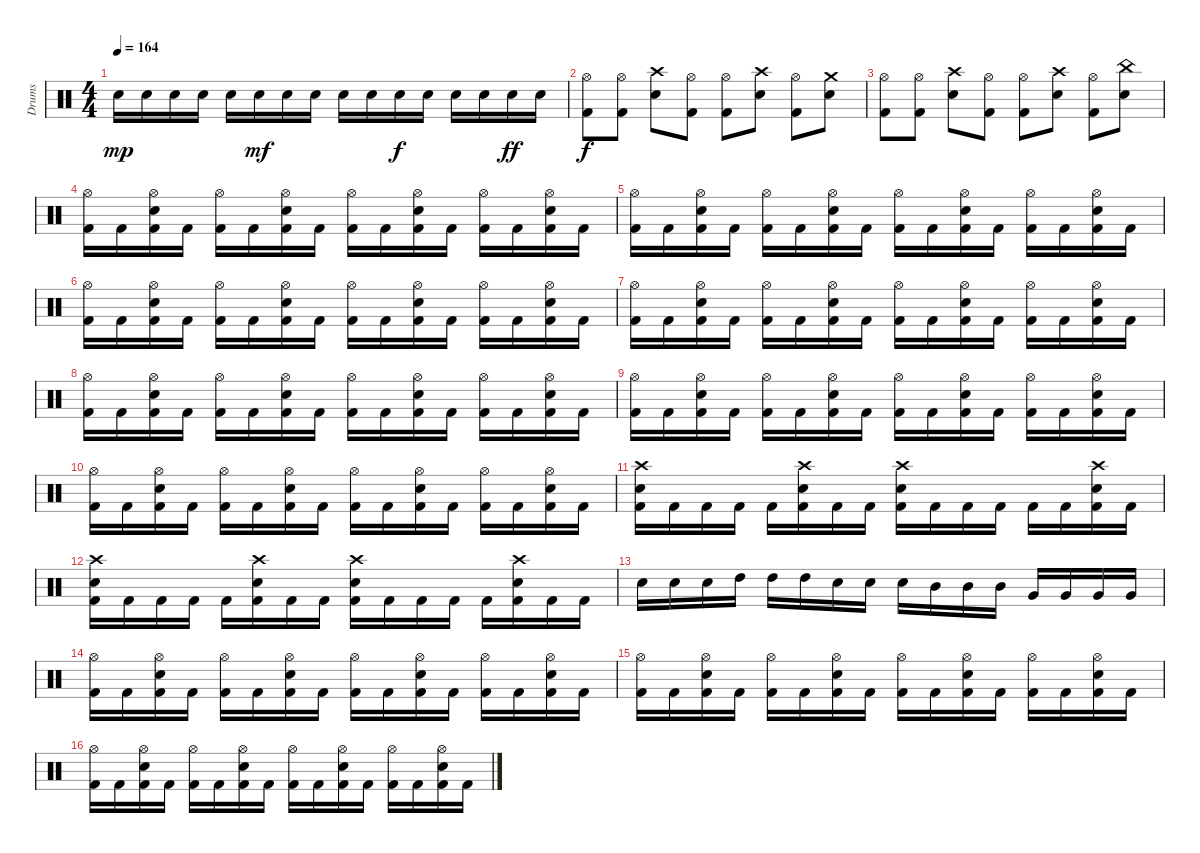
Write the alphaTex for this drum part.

\track ("Drums" "Drums") {instrument percussion}
\staff {score}
\articulation defaults
\ts (4 4)
\tempo 164
\clef neutral
\ks c "Snare (hit) 2".16{dy mp} "Snare (hit) 2".16 "Snare (hit) 2".16 "Snare (hit) 2".16 "Snare (hit) 2".16 "Snare (hit) 2".16{dy mf} "Snare (hit) 2".16 "Snare (hit) 2".16 "Snare (hit) 2".16 "Snare (hit) 2".16 "Snare (hit) 2".16{dy f} "Snare (hit) 2".16 "Snare (hit) 2".16 "Snare (hit) 2".16 "Snare (hit) 2".16{dy ff} "Snare (hit) 2".16
|
("Hi-Hat (open)" "Kick (hit) 2").8{dy f} ("Hi-Hat (open)" "Kick (hit) 2").8 ("Crash high (hit)" "Snare (hit) 2").8 ("Hi-Hat (open)" "Kick (hit) 2").8 ("Hi-Hat (open)" "Kick (hit) 2").8 ("Crash high (hit)" "Snare (hit) 2").8 ("Hi-Hat (open)" "Kick (hit) 2").8 ("Crash medium (hit)" "Snare (hit) 2").8 |
("Hi-Hat (open)" "Kick (hit) 2").8 ("Hi-Hat (open)" "Kick (hit) 2").8 ("Crash high (hit)" "Snare (hit) 2").8 ("Hi-Hat (open)" "Kick (hit) 2").8 ("Hi-Hat (open)" "Kick (hit) 2").8 ("Crash high (hit)" "Snare (hit) 2").8 ("Hi-Hat (open)" "Kick (hit) 2").8 ("China (hit)" "Snare (hit) 2").8 |
("Hi-Hat (open)" "Kick (hit) 2").16 "Kick (hit) 2".16 ("Hi-Hat (open)" "Kick (hit) 2" "Snare (hit) 2").16 "Kick (hit) 2".16 ("Hi-Hat (open)" "Kick (hit) 2").16 "Kick (hit) 2".16 ("Hi-Hat (open)" "Kick (hit) 2" "Snare (hit) 2").16 "Kick (hit) 2".16 ("Hi-Hat (open)" "Kick (hit) 2").16 "Kick (hit) 2".16 ("Hi-Hat (open)" "Kick (hit) 2" "Snare (hit) 2").16 "Kick (hit) 2".16 ("Hi-Hat (open)" "Kick (hit) 2").16 "Kick (hit) 2".16 ("Hi-Hat (open)" "Kick (hit) 2" "Snare (hit) 2").16 "Kick (hit) 2".16 |
("Hi-Hat (open)" "Kick (hit) 2").16 "Kick (hit) 2".16 ("Hi-Hat (open)" "Kick (hit) 2" "Snare (hit) 2").16 "Kick (hit) 2".16 ("Hi-Hat (open)" "Kick (hit) 2").16 "Kick (hit) 2".16 ("Hi-Hat (open)" "Kick (hit) 2" "Snare (hit) 2").16 "Kick (hit) 2".16 ("Hi-Hat (open)" "Kick (hit) 2").16 "Kick (hit) 2".16 ("Hi-Hat (open)" "Kick (hit) 2" "Snare (hit) 2").16 "Kick (hit) 2".16 ("Hi-Hat (open)" "Kick (hit) 2").16 "Kick (hit) 2".16 ("Hi-Hat (open)" "Kick (hit) 2" "Snare (hit) 2").16 "Kick (hit) 2".16 |
("Hi-Hat (open)" "Kick (hit) 2").16 "Kick (hit) 2".16 ("Hi-Hat (open)" "Kick (hit) 2" "Snare (hit) 2").16 "Kick (hit) 2".16 ("Hi-Hat (open)" "Kick (hit) 2").16 "Kick (hit) 2".16 ("Hi-Hat (open)" "Kick (hit) 2" "Snare (hit) 2").16 "Kick (hit) 2".16 ("Hi-Hat (open)" "Kick (hit) 2").16 "Kick (hit) 2".16 ("Hi-Hat (open)" "Kick (hit) 2" "Snare (hit) 2").16 "Kick (hit) 2".16 ("Hi-Hat (open)" "Kick (hit) 2").16 "Kick (hit) 2".16 ("Hi-Hat (open)" "Kick (hit) 2" "Snare (hit) 2").16 "Kick (hit) 2".16 |
("Hi-Hat (open)" "Kick (hit) 2").16 "Kick (hit) 2".16 ("Hi-Hat (open)" "Kick (hit) 2" "Snare (hit) 2").16 "Kick (hit) 2".16 ("Hi-Hat (open)" "Kick (hit) 2").16 "Kick (hit) 2".16 ("Hi-Hat (open)" "Kick (hit) 2" "Snare (hit) 2").16 "Kick (hit) 2".16 ("Hi-Hat (open)" "Kick (hit) 2").16 "Kick (hit) 2".16 ("Hi-Hat (open)" "Kick (hit) 2" "Snare (hit) 2").16 "Kick (hit) 2".16 ("Hi-Hat (open)" "Kick (hit) 2").16 "Kick (hit) 2".16 ("Hi-Hat (open)" "Kick (hit) 2" "Snare (hit) 2").16 "Kick (hit) 2".16 |
("Hi-Hat (open)" "Kick (hit) 2").16 "Kick (hit) 2".16 ("Hi-Hat (open)" "Kick (hit) 2" "Snare (hit) 2").16 "Kick (hit) 2".16 ("Hi-Hat (open)" "Kick (hit) 2").16 "Kick (hit) 2".16 ("Hi-Hat (open)" "Kick (hit) 2" "Snare (hit) 2").16 "Kick (hit) 2".16 ("Hi-Hat (open)" "Kick (hit) 2").16 "Kick (hit) 2".16 ("Hi-Hat (open)" "Kick (hit) 2" "Snare (hit) 2").16 "Kick (hit) 2".16 ("Hi-Hat (open)" "Kick (hit) 2").16 "Kick (hit) 2".16 ("Hi-Hat (open)" "Kick (hit) 2" "Snare (hit) 2").16 "Kick (hit) 2".16 |
("Hi-Hat (open)" "Kick (hit) 2").16 "Kick (hit) 2".16 ("Hi-Hat (open)" "Kick (hit) 2" "Snare (hit) 2").16 "Kick (hit) 2".16 ("Hi-Hat (open)" "Kick (hit) 2").16 "Kick (hit) 2".16 ("Hi-Hat (open)" "Kick (hit) 2" "Snare (hit) 2").16 "Kick (hit) 2".16 ("Hi-Hat (open)" "Kick (hit) 2").16 "Kick (hit) 2".16 ("Hi-Hat (open)" "Kick (hit) 2" "Snare (hit) 2").16 "Kick (hit) 2".16 ("Hi-Hat (open)" "Kick (hit) 2").16 "Kick (hit) 2".16 ("Hi-Hat (open)" "Kick (hit) 2" "Snare (hit) 2").16 "Kick (hit) 2".16 |
("Hi-Hat (open)" "Kick (hit) 2").16 "Kick (hit) 2".16 ("Hi-Hat (open)" "Kick (hit) 2" "Snare (hit) 2").16 "Kick (hit) 2".16 ("Hi-Hat (open)" "Kick (hit) 2").16 "Kick (hit) 2".16 ("Hi-Hat (open)" "Kick (hit) 2" "Snare (hit) 2").16 "Kick (hit) 2".16 ("Hi-Hat (open)" "Kick (hit) 2").16 "Kick (hit) 2".16 ("Hi-Hat (open)" "Kick (hit) 2" "Snare (hit) 2").16 "Kick (hit) 2".16 ("Hi-Hat (open)" "Kick (hit) 2").16 "Kick (hit) 2".16 ("Hi-Hat (open)" "Kick (hit) 2" "Snare (hit) 2").16 "Kick (hit) 2".16 |
("Kick (hit) 2" "Crash high (hit)" "Snare (hit) 2").16 "Kick (hit) 2".16 "Kick (hit) 2".16 "Kick (hit) 2".16 "Kick (hit) 2".16 ("Kick (hit) 2" "Crash high (hit)" "Snare (hit) 2").16 "Kick (hit) 2".16 "Kick (hit) 2".16 ("Kick (hit) 2" "Crash high (hit)" "Snare (hit) 2").16 "Kick (hit) 2".16 "Kick (hit) 2".16 "Kick (hit) 2".16 "Kick (hit) 2".16 "Kick (hit) 2".16 ("Kick (hit) 2" "Crash high (hit)" "Snare (hit) 2").16 "Kick (hit) 2".16 |
("Kick (hit) 2" "Crash high (hit)" "Snare (hit) 2").16 "Kick (hit) 2".16 "Kick (hit) 2".16 "Kick (hit) 2".16 "Kick (hit) 2".16 ("Kick (hit) 2" "Crash high (hit)" "Snare (hit) 2").16 "Kick (hit) 2".16 "Kick (hit) 2".16 ("Kick (hit) 2" "Snare (hit) 2" "Crash high (hit)").16 "Kick (hit) 2".16 "Kick (hit) 2".16 "Kick (hit) 2".16 "Kick (hit) 2".16 ("Kick (hit) 2" "Crash high (hit)" "Snare (hit) 2").16 "Kick (hit) 2".16 "Kick (hit) 2".16 |
"Snare (hit) 2".16 "Snare (hit) 2".16 "Snare (hit) 2".16 "High Tom (hit)".16 "High Tom (hit)".16 "High Tom (hit)".16 "Snare (hit) 2".16 "Snare (hit) 2".16 "Snare (hit) 2".16 "Mid Tom (hit)".16 "Mid Tom (hit)".16 "Mid Tom (hit)".16 "Very Low Tom (hit)".16 "Very Low Tom (hit)".16 "Very Low Tom (hit)".16 "Very Low Tom (hit)".16 |
("Hi-Hat (open)" "Kick (hit) 2").16 "Kick (hit) 2".16 ("Hi-Hat (open)" "Kick (hit) 2" "Snare (hit) 2").16 "Kick (hit) 2".16 ("Hi-Hat (open)" "Kick (hit) 2").16 "Kick (hit) 2".16 ("Hi-Hat (open)" "Kick (hit) 2" "Snare (hit) 2").16 "Kick (hit) 2".16 ("Hi-Hat (open)" "Kick (hit) 2").16 "Kick (hit) 2".16 ("Hi-Hat (open)" "Kick (hit) 2" "Snare (hit) 2").16 "Kick (hit) 2".16 ("Hi-Hat (open)" "Kick (hit) 2").16 "Kick (hit) 2".16 ("Hi-Hat (open)" "Kick (hit) 2" "Snare (hit) 2").16 "Kick (hit) 2".16 |
("Hi-Hat (open)" "Kick (hit) 2").16 "Kick (hit) 2".16 ("Hi-Hat (open)" "Kick (hit) 2" "Snare (hit) 2").16 "Kick (hit) 2".16 ("Hi-Hat (open)" "Kick (hit) 2").16 "Kick (hit) 2".16 ("Hi-Hat (open)" "Kick (hit) 2" "Snare (hit) 2").16 "Kick (hit) 2".16 ("Hi-Hat (open)" "Kick (hit) 2").16 "Kick (hit) 2".16 ("Hi-Hat (open)" "Kick (hit) 2" "Snare (hit) 2").16 "Kick (hit) 2".16 ("Hi-Hat (open)" "Kick (hit) 2").16 "Kick (hit) 2".16 ("Hi-Hat (open)" "Kick (hit) 2" "Snare (hit) 2").16 "Kick (hit) 2".16 |
("Hi-Hat (open)" "Kick (hit) 2").16 "Kick (hit) 2".16 ("Hi-Hat (open)" "Kick (hit) 2" "Snare (hit) 2").16 "Kick (hit) 2".16 ("Hi-Hat (open)" "Kick (hit) 2").16 "Kick (hit) 2".16 ("Hi-Hat (open)" "Kick (hit) 2" "Snare (hit) 2").16 "Kick (hit) 2".16 ("Hi-Hat (open)" "Kick (hit) 2").16 "Kick (hit) 2".16 ("Hi-Hat (open)" "Kick (hit) 2" "Snare (hit) 2").16 "Kick (hit) 2".16 ("Hi-Hat (open)" "Kick (hit) 2").16 "Kick (hit) 2".16 ("Hi-Hat (open)" "Kick (hit) 2" "Snare (hit) 2").16 "Kick (hit) 2".16
